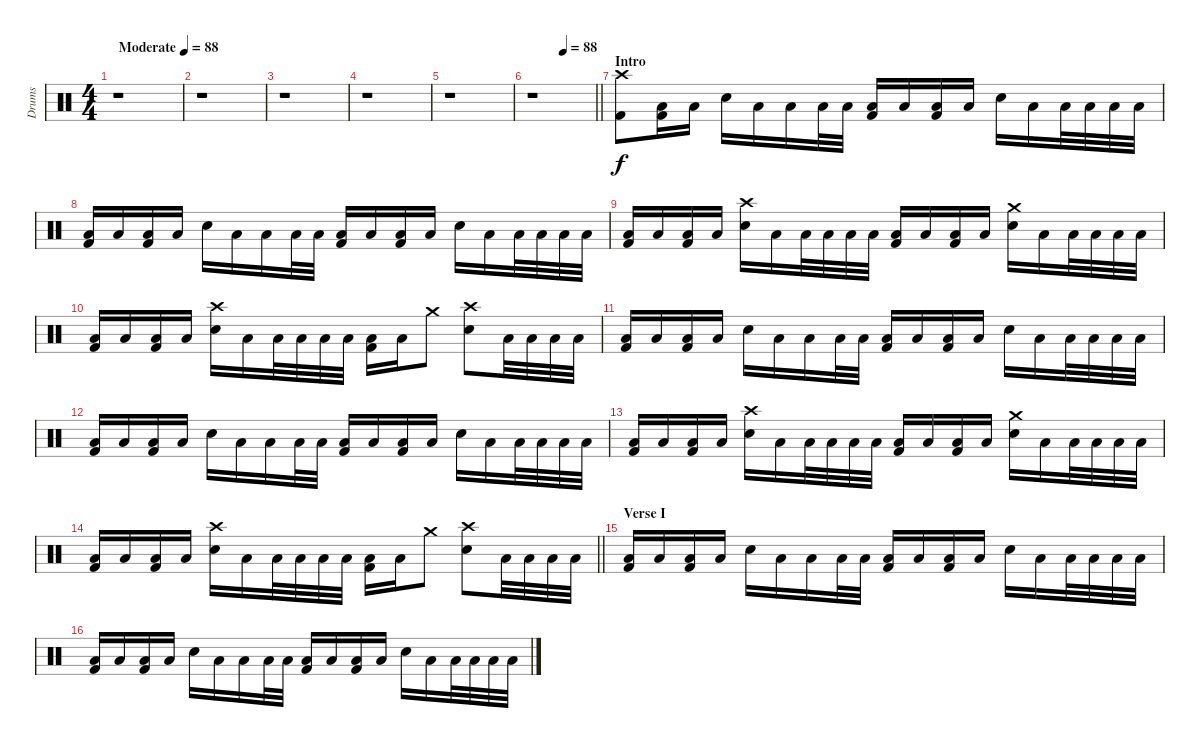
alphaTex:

\track ("Drums" "Drums") {instrument percussion}
\staff {score}
\articulation defaults
\ts (4 4)
\tempo (88 "Moderate")
\tempo 97
\tempo (88 "Moderate")
\clef neutral
\ks c
r.1{dy f} |
r.1 |
r.1 |
r.1 |
r.1 |
\tempo (88 0.5)
\barLineRight lightlight
r.1 |
\section ("" "Intro")
("Crash high (hit)" "Kick (hit) 2").8 ("Low Tom (hit)" "Kick (hit) 2").16 "Low Tom (hit)".16 "Snare (hit) 2".16 "Low Tom (hit)".16 "Low Tom (hit)".16 "Low Tom (hit)".32 "Low Tom (hit)".32 ("Low Tom (hit)" "Kick (hit) 2").16 "Low Tom (hit)".16 ("Low Tom (hit)" "Kick (hit) 2").16 "Low Tom (hit)".16 "Snare (hit) 2".16 "Low Tom (hit)".16 "Low Tom (hit)".32 "Low Tom (hit)".32 "Low Tom (hit)".32 "Low Tom (hit)".32 |
("Low Tom (hit)" "Kick (hit) 2").16 "Low Tom (hit)".16 ("Low Tom (hit)" "Kick (hit) 2").16 "Low Tom (hit)".16 "Snare (hit) 2".16 "Low Tom (hit)".16 "Low Tom (hit)".16 "Low Tom (hit)".32 "Low Tom (hit)".32 ("Low Tom (hit)" "Kick (hit) 2").16 "Low Tom (hit)".16 ("Low Tom (hit)" "Kick (hit) 2").16 "Low Tom (hit)".16 "Snare (hit) 2".16 "Low Tom (hit)".16 "Low Tom (hit)".32 "Low Tom (hit)".32 "Low Tom (hit)".32 "Low Tom (hit)".32 |
("Low Tom (hit)" "Kick (hit) 2").16 "Low Tom (hit)".16 ("Low Tom (hit)" "Kick (hit) 2").16 "Low Tom (hit)".16 ("Crash high (hit)" "Snare (hit) 2").16 "Low Tom (hit)".16 "Low Tom (hit)".32 "Low Tom (hit)".32 "Low Tom (hit)".32 "Low Tom (hit)".32 ("Low Tom (hit)" "Kick (hit) 2").16 "Low Tom (hit)".16 ("Low Tom (hit)" "Kick (hit) 2").16 "Low Tom (hit)".16 ("Crash medium (hit)" "Snare (hit) 2").16 "Low Tom (hit)".16 "Low Tom (hit)".32 "Low Tom (hit)".32 "Low Tom (hit)".32 "Low Tom (hit)".32 |
("Low Tom (hit)" "Kick (hit) 2").16 "Low Tom (hit)".16 ("Low Tom (hit)" "Kick (hit) 2").16 "Low Tom (hit)".16 ("Crash high (hit)" "Snare (hit) 2").16 "Low Tom (hit)".16 "Low Tom (hit)".32 "Low Tom (hit)".32 "Low Tom (hit)".32 "Low Tom (hit)".32 ("Low Tom (hit)" "Kick (hit) 2").16 "Low Tom (hit)".16 "Crash medium (hit)".8 ("Crash high (hit)" "Snare (hit) 2").8 "Low Tom (hit)".32 "Low Tom (hit)".32 "Low Tom (hit)".32 "Low Tom (hit)".32 |
("Low Tom (hit)" "Kick (hit) 2").16 "Low Tom (hit)".16 ("Low Tom (hit)" "Kick (hit) 2").16 "Low Tom (hit)".16 "Snare (hit) 2".16 "Low Tom (hit)".16 "Low Tom (hit)".16 "Low Tom (hit)".32 "Low Tom (hit)".32 ("Low Tom (hit)" "Kick (hit) 2").16 "Low Tom (hit)".16 ("Low Tom (hit)" "Kick (hit) 2").16 "Low Tom (hit)".16 "Snare (hit) 2".16 "Low Tom (hit)".16 "Low Tom (hit)".32 "Low Tom (hit)".32 "Low Tom (hit)".32 "Low Tom (hit)".32 |
("Low Tom (hit)" "Kick (hit) 2").16 "Low Tom (hit)".16 ("Low Tom (hit)" "Kick (hit) 2").16 "Low Tom (hit)".16 "Snare (hit) 2".16 "Low Tom (hit)".16 "Low Tom (hit)".16 "Low Tom (hit)".32 "Low Tom (hit)".32 ("Low Tom (hit)" "Kick (hit) 2").16 "Low Tom (hit)".16 ("Low Tom (hit)" "Kick (hit) 2").16 "Low Tom (hit)".16 "Snare (hit) 2".16 "Low Tom (hit)".16 "Low Tom (hit)".32 "Low Tom (hit)".32 "Low Tom (hit)".32 "Low Tom (hit)".32 |
("Low Tom (hit)" "Kick (hit) 2").16 "Low Tom (hit)".16 ("Low Tom (hit)" "Kick (hit) 2").16 "Low Tom (hit)".16 ("Crash high (hit)" "Snare (hit) 2").16 "Low Tom (hit)".16 "Low Tom (hit)".32 "Low Tom (hit)".32 "Low Tom (hit)".32 "Low Tom (hit)".32 ("Low Tom (hit)" "Kick (hit) 2").16 "Low Tom (hit)".16 ("Low Tom (hit)" "Kick (hit) 2").16 "Low Tom (hit)".16 ("Crash medium (hit)" "Snare (hit) 2").16 "Low Tom (hit)".16 "Low Tom (hit)".32 "Low Tom (hit)".32 "Low Tom (hit)".32 "Low Tom (hit)".32 |
\barLineRight lightlight
("Low Tom (hit)" "Kick (hit) 2").16 "Low Tom (hit)".16 ("Low Tom (hit)" "Kick (hit) 2").16 "Low Tom (hit)".16 ("Crash high (hit)" "Snare (hit) 2").16 "Low Tom (hit)".16 "Low Tom (hit)".32 "Low Tom (hit)".32 "Low Tom (hit)".32 "Low Tom (hit)".32 ("Low Tom (hit)" "Kick (hit) 2").16 "Low Tom (hit)".16 "Crash medium (hit)".8 ("Crash high (hit)" "Snare (hit) 2").8 "Low Tom (hit)".32 "Low Tom (hit)".32 "Low Tom (hit)".32 "Low Tom (hit)".32 |
\section ("" "Verse I")
("Low Tom (hit)" "Kick (hit) 2").16 "Low Tom (hit)".16 ("Low Tom (hit)" "Kick (hit) 2").16 "Low Tom (hit)".16 "Snare (hit) 2".16 "Low Tom (hit)".16 "Low Tom (hit)".16 "Low Tom (hit)".32 "Low Tom (hit)".32 ("Low Tom (hit)" "Kick (hit) 2").16 "Low Tom (hit)".16 ("Low Tom (hit)" "Kick (hit) 2").16 "Low Tom (hit)".16 "Snare (hit) 2".16 "Low Tom (hit)".16 "Low Tom (hit)".32 "Low Tom (hit)".32 "Low Tom (hit)".32 "Low Tom (hit)".32 |
("Low Tom (hit)" "Kick (hit) 2").16 "Low Tom (hit)".16 ("Low Tom (hit)" "Kick (hit) 2").16 "Low Tom (hit)".16 "Snare (hit) 2".16 "Low Tom (hit)".16 "Low Tom (hit)".16 "Low Tom (hit)".32 "Low Tom (hit)".32 ("Low Tom (hit)" "Kick (hit) 2").16 "Low Tom (hit)".16 ("Low Tom (hit)" "Kick (hit) 2").16 "Low Tom (hit)".16 "Snare (hit) 2".16 "Low Tom (hit)".16 "Low Tom (hit)".32 "Low Tom (hit)".32 "Low Tom (hit)".32 "Low Tom (hit)".32
